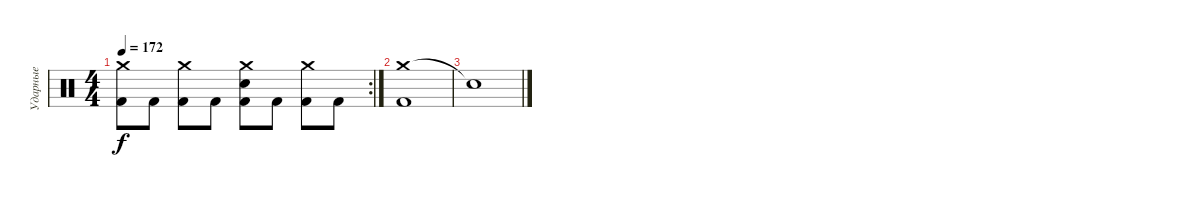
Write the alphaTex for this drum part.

\track ("Ударные" "Ударные") {instrument percussion}
\staff {score}
\articulation defaults
\rc 2
\ts (4 4)
\tempo 172
\clef neutral
\ks c
("Crash medium (hit)" "Kick (hit) 2").8{dy f} "Kick (hit) 2".8 ("Crash medium (hit)" "Kick (hit) 2").8 "Kick (hit) 2".8 ("Crash medium (hit)" "Electric Snare (hit)" "Kick (hit) 2").8 "Kick (hit) 2".8 ("Crash medium (hit)" "Kick (hit) 2").8 "Kick (hit) 2".8 |
("Crash medium (hit)" "Kick (hit) 2").1 |
"Snare (hit)"{t}.1
